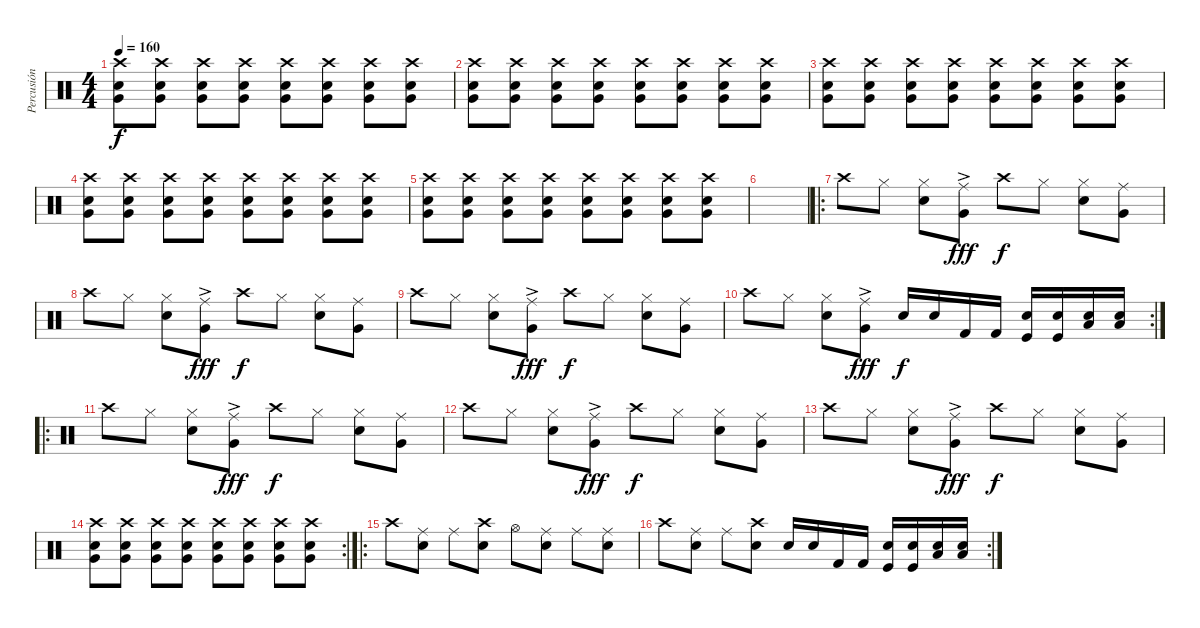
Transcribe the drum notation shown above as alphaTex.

\track ("Percusión" "Percusión") {instrument percussion}
\staff {score}
\articulation defaults
\ts (4 4)
\tempo 160
\clef neutral
\ks c
("Crash high (hit)" "Snare (hit) 2" "Very Low Tom (hit)").8{dy f} ("Crash high (hit)" "Snare (hit) 2" "Very Low Tom (hit)").8 ("Crash high (hit)" "Snare (hit) 2" "Very Low Tom (hit)").8 ("Crash high (hit)" "Snare (hit) 2" "Very Low Tom (hit)").8 ("Crash high (hit)" "Snare (hit) 2" "Very Low Tom (hit)").8 ("Crash high (hit)" "Snare (hit) 2" "Very Low Tom (hit)").8 ("Crash high (hit)" "Snare (hit) 2" "Very Low Tom (hit)").8 ("Crash high (hit)" "Snare (hit) 2" "Very Low Tom (hit)").8 |
("Crash high (hit)" "Snare (hit) 2" "Very Low Tom (hit)").8 ("Crash high (hit)" "Snare (hit) 2" "Very Low Tom (hit)").8 ("Crash high (hit)" "Snare (hit) 2" "Very Low Tom (hit)").8 ("Crash high (hit)" "Snare (hit) 2" "Very Low Tom (hit)").8 ("Crash high (hit)" "Snare (hit) 2" "Very Low Tom (hit)").8 ("Crash high (hit)" "Snare (hit) 2" "Very Low Tom (hit)").8 ("Crash high (hit)" "Snare (hit) 2" "Very Low Tom (hit)").8 ("Crash high (hit)" "Snare (hit) 2" "Very Low Tom (hit)").8 |
("Crash high (hit)" "Snare (hit) 2" "Very Low Tom (hit)").8 ("Crash high (hit)" "Snare (hit) 2" "Very Low Tom (hit)").8 ("Crash high (hit)" "Snare (hit) 2" "Very Low Tom (hit)").8 ("Crash high (hit)" "Snare (hit) 2" "Very Low Tom (hit)").8 ("Crash high (hit)" "Snare (hit) 2" "Very Low Tom (hit)").8 ("Crash high (hit)" "Snare (hit) 2" "Very Low Tom (hit)").8 ("Crash high (hit)" "Snare (hit) 2" "Very Low Tom (hit)").8 ("Crash high (hit)" "Snare (hit) 2" "Very Low Tom (hit)").8 |
("Crash high (hit)" "Snare (hit) 2" "Very Low Tom (hit)").8 ("Crash high (hit)" "Snare (hit) 2" "Very Low Tom (hit)").8 ("Crash high (hit)" "Snare (hit) 2" "Very Low Tom (hit)").8 ("Crash high (hit)" "Snare (hit) 2" "Very Low Tom (hit)").8 ("Crash high (hit)" "Snare (hit) 2" "Very Low Tom (hit)").8 ("Crash high (hit)" "Snare (hit) 2" "Very Low Tom (hit)").8 ("Crash high (hit)" "Snare (hit) 2" "Very Low Tom (hit)").8 ("Crash high (hit)" "Snare (hit) 2" "Very Low Tom (hit)").8 |
("Crash high (hit)" "Snare (hit) 2" "Very Low Tom (hit)").8 ("Crash high (hit)" "Snare (hit) 2" "Very Low Tom (hit)").8 ("Crash high (hit)" "Snare (hit) 2" "Very Low Tom (hit)").8 ("Crash high (hit)" "Snare (hit) 2" "Very Low Tom (hit)").8 ("Crash high (hit)" "Snare (hit) 2" "Very Low Tom (hit)").8 ("Crash high (hit)" "Snare (hit) 2" "Very Low Tom (hit)").8 ("Crash high (hit)" "Snare (hit) 2" "Very Low Tom (hit)").8 ("Crash high (hit)" "Snare (hit) 2" "Very Low Tom (hit)").8 |
|
\ro "Crash high (hit)".8 "Hi-Hat (closed)".8
("Hi-Hat (closed)" "Snare (hit) 2").8 ("Ride (middle)" "Very Low Tom (hit)"{ac}).8{dy fff} "Crash high (hit)".8{dy f} "Hi-Hat (closed)".8 ("Hi-Hat (closed)" "Snare (hit) 2").8 ("Ride (middle)" "Very Low Tom (hit)").8 |
"Crash high (hit)".8 "Hi-Hat (closed)".8 ("Hi-Hat (closed)" "Snare (hit) 2").8 ("Ride (middle)" "Very Low Tom (hit)"{ac}).8{dy fff} "Crash high (hit)".8{dy f} "Hi-Hat (closed)".8 ("Hi-Hat (closed)" "Snare (hit) 2").8 ("Ride (middle)" "Very Low Tom (hit)").8 |
"Crash high (hit)".8 "Hi-Hat (closed)".8 ("Hi-Hat (closed)" "Snare (hit) 2").8 ("Ride (middle)" "Very Low Tom (hit)"{ac}).8{dy fff} "Crash high (hit)".8{dy f} "Hi-Hat (closed)".8 ("Hi-Hat (closed)" "Snare (hit) 2").8 ("Ride (middle)" "Very Low Tom (hit)").8 |
\rc 2 "Crash high (hit)".8 "Hi-Hat (closed)".8
("Hi-Hat (closed)" "Snare (hit) 2").8 ("Ride (middle)" "Very Low Tom (hit)"{ac}).8{dy fff} "Snare (hit) 2".16{dy f} "Snare (hit) 2".16 "Kick (hit) 2".16 "Kick (hit) 2".16 ("Kick (hit)" "Snare (hit) 2").16 ("Kick (hit)" "Snare (hit) 2").16 ("Snare (hit) 2" "Low Floor Tom (hit)").16 ("Snare (hit) 2" "Low Floor Tom (hit)").16 |
\ro "Crash high (hit)".8 "Hi-Hat (closed)".8
("Hi-Hat (closed)" "Snare (hit) 2").8 ("Ride (middle)" "Very Low Tom (hit)"{ac}).8{dy fff} "Crash high (hit)".8{dy f} "Hi-Hat (closed)".8 ("Hi-Hat (closed)" "Snare (hit) 2").8 ("Ride (middle)" "Very Low Tom (hit)").8 |
"Crash high (hit)".8 "Hi-Hat (closed)".8 ("Hi-Hat (closed)" "Snare (hit) 2").8 ("Ride (middle)" "Very Low Tom (hit)"{ac}).8{dy fff} "Crash high (hit)".8{dy f} "Hi-Hat (closed)".8 ("Hi-Hat (closed)" "Snare (hit) 2").8 ("Ride (middle)" "Very Low Tom (hit)").8 |
"Crash high (hit)".8 "Hi-Hat (closed)".8 ("Hi-Hat (closed)" "Snare (hit) 2").8 ("Ride (middle)" "Very Low Tom (hit)"{ac}).8{dy fff} "Crash high (hit)".8{dy f} "Hi-Hat (closed)".8 ("Hi-Hat (closed)" "Snare (hit) 2").8 ("Ride (middle)" "Very Low Tom (hit)").8 |
\rc 2
("Crash high (hit)" "Snare (hit) 2" "Very Low Tom (hit)").8 ("Crash high (hit)" "Snare (hit) 2" "Very Low Tom (hit)").8 ("Crash high (hit)" "Snare (hit) 2" "Very Low Tom (hit)").8 ("Crash high (hit)" "Snare (hit) 2" "Very Low Tom (hit)").8 ("Crash high (hit)" "Snare (hit) 2" "Very Low Tom (hit)").8 ("Crash high (hit)" "Snare (hit) 2" "Very Low Tom (hit)").8 ("Crash high (hit)" "Snare (hit) 2" "Very Low Tom (hit)").8 ("Crash high (hit)" "Snare (hit) 2" "Very Low Tom (hit)").8 |
\ro "Crash high (hit)".8
("Ride (middle)" "Snare (hit) 2").8 "Ride (middle)".8 ("Crash high (hit)" "Snare (hit) 2").8 "Hi-Hat (open)".8 ("Ride (middle)" "Snare (hit) 2").8 "Ride (middle)".8 ("Ride (middle)" "Snare (hit) 2").8 |
\rc 2 "Crash high (hit)".8
("Ride (middle)" "Snare (hit) 2").8 "Ride (middle)".8 ("Crash high (hit)" "Snare (hit) 2").8 "Snare (hit) 2".16 "Snare (hit) 2".16 "Kick (hit) 2".16 "Kick (hit) 2".16 ("Kick (hit)" "Snare (hit) 2").16 ("Kick (hit)" "Snare (hit) 2").16 ("Snare (hit) 2" "Low Floor Tom (hit)").16 ("Snare (hit) 2" "Low Floor Tom (hit)").16
